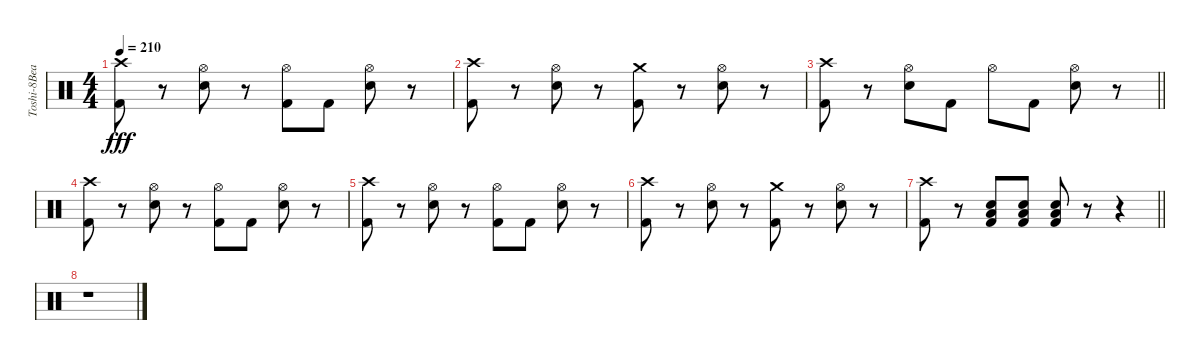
\track ("Toshi-8Beat" "Toshi-8Bea") {instrument percussion}
\staff {score}
\articulation defaults
\ts (4 4)
\tempo 210
\clef neutral
\ks c
("Kick (hit) 2" "Crash high (hit)").8{dy fff} r.8 ("Hi-Hat (open)" "Snare (hit) 2").8 r.8 ("Hi-Hat (open)" "Kick (hit) 2").8 "Kick (hit) 2".8 ("Hi-Hat (open)" "Snare (hit) 2").8 r.8 |
("Kick (hit) 2" "Crash high (hit)").8 r.8 ("Hi-Hat (open)" "Snare (hit) 2").8 r.8 ("Kick (hit) 2" "Crash medium (hit)").8 r.8 ("Hi-Hat (open)" "Snare (hit) 2").8 r.8 |
\barLineRight lightlight
("Kick (hit) 2" "Crash high (hit)").8 r.8 ("Hi-Hat (open)" "Snare (hit) 2").8 "Kick (hit) 2".8 "Hi-Hat (open)".8 "Kick (hit) 2".8 ("Hi-Hat (open)" "Snare (hit) 2").8 r.8 |
("Kick (hit) 2" "Crash high (hit)").8 r.8 ("Hi-Hat (open)" "Snare (hit) 2").8 r.8 ("Hi-Hat (open)" "Kick (hit) 2").8 "Kick (hit) 2".8 ("Hi-Hat (open)" "Snare (hit) 2").8 r.8 |
("Kick (hit) 2" "Crash high (hit)").8 r.8 ("Hi-Hat (open)" "Snare (hit) 2").8 r.8 ("Hi-Hat (open)" "Kick (hit) 2").8 "Kick (hit) 2".8 ("Hi-Hat (open)" "Snare (hit) 2").8 r.8 |
("Kick (hit) 2" "Crash high (hit)").8 r.8 ("Hi-Hat (open)" "Snare (hit) 2").8 r.8 ("Kick (hit) 2" "Crash medium (hit)").8 r.8 ("Hi-Hat (open)" "Snare (hit) 2").8 r.8 |
\barLineRight lightlight
("Kick (hit) 2" "Crash high (hit)").8 r.8 ("Snare (hit) 2" "Kick (hit) 2" "Low Floor Tom (hit)").8 ("Snare (hit) 2" "Kick (hit) 2" "Low Floor Tom (hit)").8 ("Snare (hit) 2" "Kick (hit) 2" "Low Floor Tom (hit)").8 r.8 r.4 |
r.1
